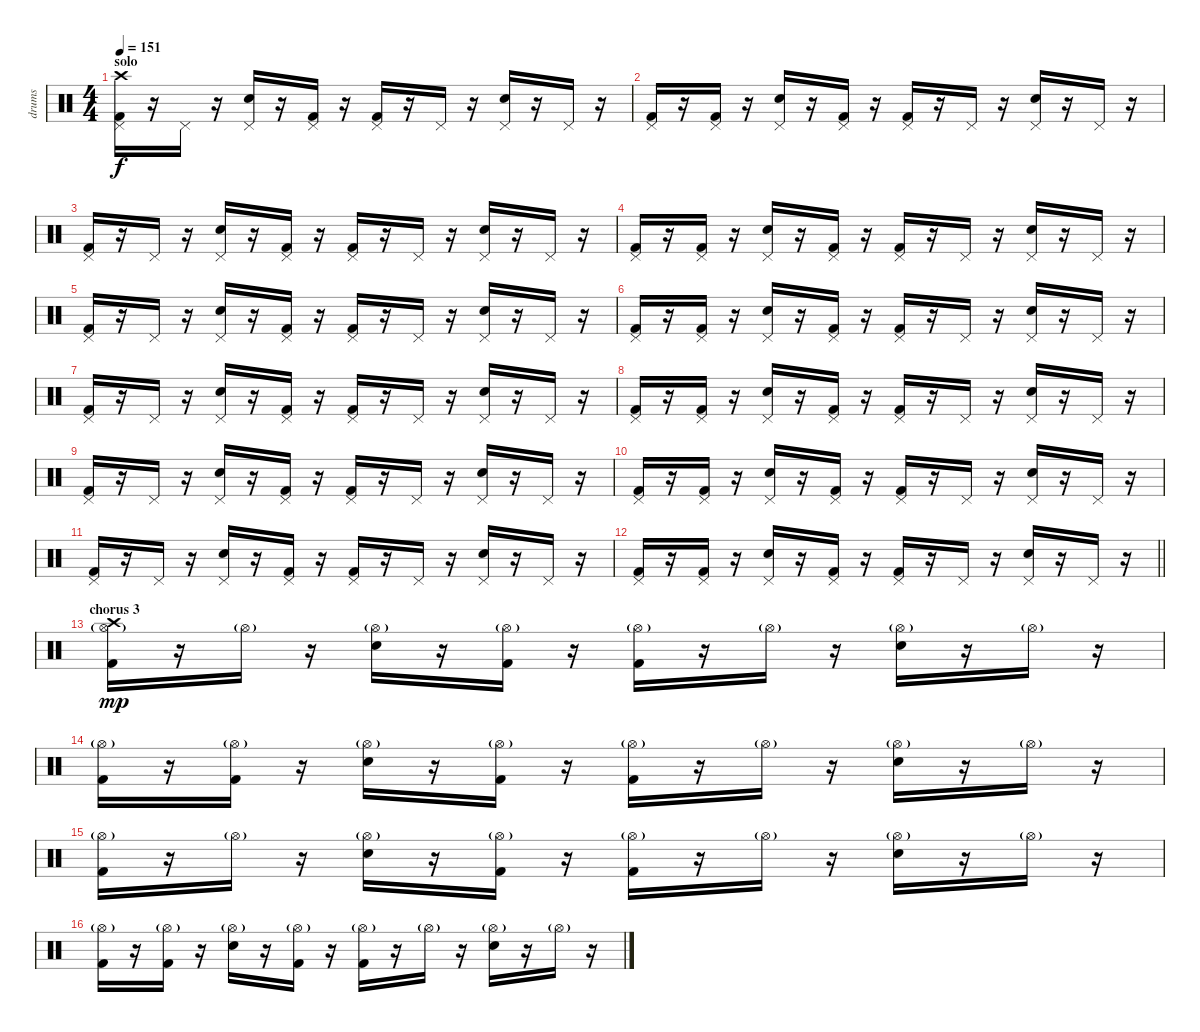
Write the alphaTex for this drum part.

\track ("drums" "drums") {instrument percussion}
\staff {score}
\articulation defaults
\ts (4 4)
\section ("" "solo")
\tempo 151
\clef neutral
\ks c
("Kick (hit) 2" "Pedal Hi-Hat (hit)" "Crash high (hit)").16{dy f} r.16 "Pedal Hi-Hat (hit)".16 r.16 ("Electric Snare (hit)" "Pedal Hi-Hat (hit)").16 r.16 ("Kick (hit) 2" "Pedal Hi-Hat (hit)").16 r.16 ("Kick (hit) 2" "Pedal Hi-Hat (hit)").16 r.16 "Pedal Hi-Hat (hit)".16 r.16 ("Electric Snare (hit)" "Pedal Hi-Hat (hit)").16 r.16 "Pedal Hi-Hat (hit)".16 r.16 |
("Kick (hit) 2" "Pedal Hi-Hat (hit)").16 r.16 ("Kick (hit) 2" "Pedal Hi-Hat (hit)").16 r.16 ("Electric Snare (hit)" "Pedal Hi-Hat (hit)").16 r.16 ("Kick (hit) 2" "Pedal Hi-Hat (hit)").16 r.16 ("Kick (hit) 2" "Pedal Hi-Hat (hit)").16 r.16 "Pedal Hi-Hat (hit)".16 r.16 ("Electric Snare (hit)" "Pedal Hi-Hat (hit)").16 r.16 "Pedal Hi-Hat (hit)".16 r.16 |
("Kick (hit) 2" "Pedal Hi-Hat (hit)").16 r.16 "Pedal Hi-Hat (hit)".16 r.16 ("Electric Snare (hit)" "Pedal Hi-Hat (hit)").16 r.16 ("Kick (hit) 2" "Pedal Hi-Hat (hit)").16 r.16 ("Kick (hit) 2" "Pedal Hi-Hat (hit)").16 r.16 "Pedal Hi-Hat (hit)".16 r.16 ("Electric Snare (hit)" "Pedal Hi-Hat (hit)").16 r.16 "Pedal Hi-Hat (hit)".16 r.16 |
("Kick (hit) 2" "Pedal Hi-Hat (hit)").16 r.16 ("Kick (hit) 2" "Pedal Hi-Hat (hit)").16 r.16 ("Electric Snare (hit)" "Pedal Hi-Hat (hit)").16 r.16 ("Kick (hit) 2" "Pedal Hi-Hat (hit)").16 r.16 ("Kick (hit) 2" "Pedal Hi-Hat (hit)").16 r.16 "Pedal Hi-Hat (hit)".16 r.16 ("Electric Snare (hit)" "Pedal Hi-Hat (hit)").16 r.16 "Pedal Hi-Hat (hit)".16 r.16 |
("Kick (hit) 2" "Pedal Hi-Hat (hit)").16 r.16 "Pedal Hi-Hat (hit)".16 r.16 ("Electric Snare (hit)" "Pedal Hi-Hat (hit)").16 r.16 ("Kick (hit) 2" "Pedal Hi-Hat (hit)").16 r.16 ("Kick (hit) 2" "Pedal Hi-Hat (hit)").16 r.16 "Pedal Hi-Hat (hit)".16 r.16 ("Electric Snare (hit)" "Pedal Hi-Hat (hit)").16 r.16 "Pedal Hi-Hat (hit)".16 r.16 |
("Kick (hit) 2" "Pedal Hi-Hat (hit)").16 r.16 ("Kick (hit) 2" "Pedal Hi-Hat (hit)").16 r.16 ("Electric Snare (hit)" "Pedal Hi-Hat (hit)").16 r.16 ("Kick (hit) 2" "Pedal Hi-Hat (hit)").16 r.16 ("Kick (hit) 2" "Pedal Hi-Hat (hit)").16 r.16 "Pedal Hi-Hat (hit)".16 r.16 ("Electric Snare (hit)" "Pedal Hi-Hat (hit)").16 r.16 "Pedal Hi-Hat (hit)".16 r.16 |
("Kick (hit) 2" "Pedal Hi-Hat (hit)").16 r.16 "Pedal Hi-Hat (hit)".16 r.16 ("Electric Snare (hit)" "Pedal Hi-Hat (hit)").16 r.16 ("Kick (hit) 2" "Pedal Hi-Hat (hit)").16 r.16 ("Kick (hit) 2" "Pedal Hi-Hat (hit)").16 r.16 "Pedal Hi-Hat (hit)".16 r.16 ("Electric Snare (hit)" "Pedal Hi-Hat (hit)").16 r.16 "Pedal Hi-Hat (hit)".16 r.16 |
("Kick (hit) 2" "Pedal Hi-Hat (hit)").16 r.16 ("Kick (hit) 2" "Pedal Hi-Hat (hit)").16 r.16 ("Electric Snare (hit)" "Pedal Hi-Hat (hit)").16 r.16 ("Kick (hit) 2" "Pedal Hi-Hat (hit)").16 r.16 ("Kick (hit) 2" "Pedal Hi-Hat (hit)").16 r.16 "Pedal Hi-Hat (hit)".16 r.16 ("Electric Snare (hit)" "Pedal Hi-Hat (hit)").16 r.16 "Pedal Hi-Hat (hit)".16 r.16 |
("Kick (hit) 2" "Pedal Hi-Hat (hit)").16 r.16 "Pedal Hi-Hat (hit)".16 r.16 ("Electric Snare (hit)" "Pedal Hi-Hat (hit)").16 r.16 ("Kick (hit) 2" "Pedal Hi-Hat (hit)").16 r.16 ("Kick (hit) 2" "Pedal Hi-Hat (hit)").16 r.16 "Pedal Hi-Hat (hit)".16 r.16 ("Electric Snare (hit)" "Pedal Hi-Hat (hit)").16 r.16 "Pedal Hi-Hat (hit)".16 r.16 |
("Kick (hit) 2" "Pedal Hi-Hat (hit)").16 r.16 ("Kick (hit) 2" "Pedal Hi-Hat (hit)").16 r.16 ("Electric Snare (hit)" "Pedal Hi-Hat (hit)").16 r.16 ("Kick (hit) 2" "Pedal Hi-Hat (hit)").16 r.16 ("Kick (hit) 2" "Pedal Hi-Hat (hit)").16 r.16 "Pedal Hi-Hat (hit)".16 r.16 ("Electric Snare (hit)" "Pedal Hi-Hat (hit)").16 r.16 "Pedal Hi-Hat (hit)".16 r.16 |
("Kick (hit) 2" "Pedal Hi-Hat (hit)").16 r.16 "Pedal Hi-Hat (hit)".16 r.16 ("Electric Snare (hit)" "Pedal Hi-Hat (hit)").16 r.16 ("Kick (hit) 2" "Pedal Hi-Hat (hit)").16 r.16 ("Kick (hit) 2" "Pedal Hi-Hat (hit)").16 r.16 "Pedal Hi-Hat (hit)".16 r.16 ("Electric Snare (hit)" "Pedal Hi-Hat (hit)").16 r.16 "Pedal Hi-Hat (hit)".16 r.16 |
\barLineRight lightlight
("Kick (hit) 2" "Pedal Hi-Hat (hit)").16 r.16 ("Kick (hit) 2" "Pedal Hi-Hat (hit)").16 r.16 ("Electric Snare (hit)" "Pedal Hi-Hat (hit)").16 r.16 ("Kick (hit) 2" "Pedal Hi-Hat (hit)").16 r.16 ("Kick (hit) 2" "Pedal Hi-Hat (hit)").16 r.16 "Pedal Hi-Hat (hit)".16 r.16 ("Electric Snare (hit)" "Pedal Hi-Hat (hit)").16 r.16 "Pedal Hi-Hat (hit)".16 r.16 |
\section ("" "chorus 3")
("Kick (hit) 2" "Hi-Hat (open)"{g} "Crash high (hit)").16{dy mp} r.16 "Hi-Hat (open)"{g}.16 r.16 ("Electric Snare (hit)" "Hi-Hat (open)"{g}).16 r.16 ("Kick (hit) 2" "Hi-Hat (open)"{g}).16 r.16 ("Kick (hit) 2" "Hi-Hat (open)"{g}).16 r.16 "Hi-Hat (open)"{g}.16 r.16 ("Electric Snare (hit)" "Hi-Hat (open)"{g}).16 r.16 "Hi-Hat (open)"{g}.16 r.16 |
("Kick (hit) 2" "Hi-Hat (open)"{g}).16 r.16 ("Kick (hit) 2" "Hi-Hat (open)"{g}).16 r.16 ("Electric Snare (hit)" "Hi-Hat (open)"{g}).16 r.16 ("Kick (hit) 2" "Hi-Hat (open)"{g}).16 r.16 ("Kick (hit) 2" "Hi-Hat (open)"{g}).16 r.16 "Hi-Hat (open)"{g}.16 r.16 ("Electric Snare (hit)" "Hi-Hat (open)"{g}).16 r.16 "Hi-Hat (open)"{g}.16 r.16 |
("Kick (hit) 2" "Hi-Hat (open)"{g}).16 r.16 "Hi-Hat (open)"{g}.16 r.16 ("Electric Snare (hit)" "Hi-Hat (open)"{g}).16 r.16 ("Kick (hit) 2" "Hi-Hat (open)"{g}).16 r.16 ("Kick (hit) 2" "Hi-Hat (open)"{g}).16 r.16 "Hi-Hat (open)"{g}.16 r.16 ("Electric Snare (hit)" "Hi-Hat (open)"{g}).16 r.16 "Hi-Hat (open)"{g}.16 r.16 |
("Kick (hit) 2" "Hi-Hat (open)"{g}).16 r.16 ("Kick (hit) 2" "Hi-Hat (open)"{g}).16 r.16 ("Electric Snare (hit)" "Hi-Hat (open)"{g}).16 r.16 ("Kick (hit) 2" "Hi-Hat (open)"{g}).16 r.16 ("Kick (hit) 2" "Hi-Hat (open)"{g}).16 r.16 "Hi-Hat (open)"{g}.16 r.16 ("Electric Snare (hit)" "Hi-Hat (open)"{g}).16 r.16 "Hi-Hat (open)"{g}.16 r.16
